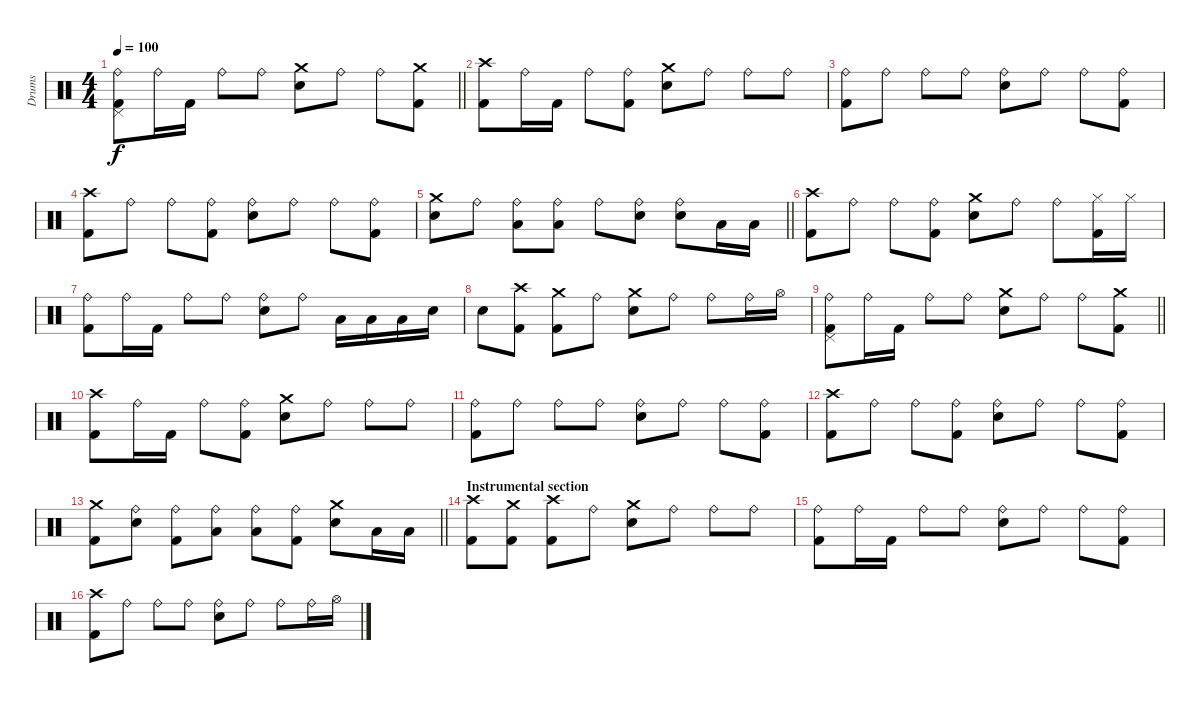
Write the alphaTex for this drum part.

\track ("Drums" "Drums") {instrument percussion}
\staff {score}
\articulation defaults
\ts (4 4)
\tempo 100
\clef neutral
\barLineRight lightlight
\ks c
("Ride (bell)" "Pedal Hi-Hat (hit)" "Kick (hit) 2").8{dy f} "Ride (bell)".16 "Kick (hit) 2".16 "Ride (bell)".8 "Ride (bell)".8 ("Crash medium (hit)" "Snare (hit) 2").8 "Ride (bell)".8 "Ride (bell)".8 ("Crash medium (hit)" "Kick (hit) 2").8 |
("Crash high (hit)" "Kick (hit) 2").8 "Ride (bell)".16 "Kick (hit) 2".16 "Ride (bell)".8 ("Ride (bell)" "Kick (hit) 2").8 ("Crash medium (hit)" "Snare (hit) 2").8 "Ride (bell)".8 "Ride (bell)".8 "Ride (bell)".8 |
("Ride (bell)" "Kick (hit) 2").8 "Ride (bell)".8 "Ride (bell)".8 "Ride (bell)".8 ("Ride (bell)" "Snare (hit) 2").8 "Ride (bell)".8 "Ride (bell)".8 ("Ride (bell)" "Kick (hit) 2").8 |
("Crash high (hit)" "Kick (hit) 2").8 "Ride (bell)".8 "Ride (bell)".8 ("Ride (bell)" "Kick (hit) 2").8 ("Ride (bell)" "Snare (hit) 2").8 "Ride (bell)".8 "Ride (bell)".8 ("Ride (bell)" "Kick (hit) 2").8 |
\barLineRight lightlight
("Crash medium (hit)" "Snare (hit) 2").8 "Ride (bell)".8 ("Ride (bell)" "Low Tom (hit)").8 ("Ride (bell)" "Low Tom (hit)").8 "Ride (bell)".8 ("Ride (bell)" "Snare (hit) 2").8 ("Ride (bell)" "Snare (hit) 2").8 "Low Floor Tom (hit)".16 "Low Floor Tom (hit)".16 |
("Crash high (hit)" "Kick (hit) 2").8 "Ride (bell)".8 "Ride (bell)".8 ("Ride (bell)" "Kick (hit) 2").8 ("Crash medium (hit)" "Snare (hit) 2").8 "Ride (bell)".8 "Ride (bell)".8 ("Hi-Hat (closed)" "Kick (hit) 2").16 "Hi-Hat (closed)".16 |
("Ride (bell)" "Kick (hit) 2").8 "Ride (bell)".16 "Kick (hit) 2".16 "Ride (bell)".8 "Ride (bell)".8 ("Ride (bell)" "Snare (hit) 2").8 "Ride (bell)".8 "Low Tom (hit)".16 "Low Tom (hit)".16 "Low Tom (hit)".16 "Snare (hit) 2".16 |
"Snare (hit) 2".8 ("Crash high (hit)" "Kick (hit) 2").8 ("Crash medium (hit)" "Kick (hit) 2").8 "Ride (bell)".8 ("Crash medium (hit)" "Snare (hit) 2").8 "Ride (bell)".8 "Ride (bell)".8 "Ride (bell)".16 "Hi-Hat (open)".16 |
\barLineRight lightlight
("Ride (bell)" "Pedal Hi-Hat (hit)" "Kick (hit) 2").8 "Ride (bell)".16 "Kick (hit) 2".16 "Ride (bell)".8 "Ride (bell)".8 ("Crash medium (hit)" "Snare (hit) 2").8 "Ride (bell)".8 "Ride (bell)".8 ("Crash medium (hit)" "Kick (hit) 2").8 |
("Crash high (hit)" "Kick (hit) 2").8 "Ride (bell)".16 "Kick (hit) 2".16 "Ride (bell)".8 ("Ride (bell)" "Kick (hit) 2").8 ("Crash medium (hit)" "Snare (hit) 2").8 "Ride (bell)".8 "Ride (bell)".8 "Ride (bell)".8 |
("Ride (bell)" "Kick (hit) 2").8 "Ride (bell)".8 "Ride (bell)".8 "Ride (bell)".8 ("Ride (bell)" "Snare (hit) 2").8 "Ride (bell)".8 "Ride (bell)".8 ("Ride (bell)" "Kick (hit) 2").8 |
("Crash high (hit)" "Kick (hit) 2").8 "Ride (bell)".8 "Ride (bell)".8 ("Ride (bell)" "Kick (hit) 2").8 ("Ride (bell)" "Snare (hit) 2").8 "Ride (bell)".8 "Ride (bell)".8 ("Ride (bell)" "Kick (hit) 2").8 |
\barLineRight lightlight
("Crash medium (hit)" "Kick (hit) 2").8 ("Ride (bell)" "Snare (hit) 2").8 ("Ride (bell)" "Kick (hit) 2").8 ("Ride (bell)" "Low Tom (hit)").8 ("Ride (bell)" "Low Tom (hit)").8 ("Ride (bell)" "Kick (hit) 2").8 ("Crash medium (hit)" "Snare (hit) 2").8 "Low Floor Tom (hit)".16 "Low Floor Tom (hit)".16 |
\section ("" "Instrumental section")
("Crash high (hit)" "Kick (hit) 2").8 ("Crash medium (hit)" "Kick (hit) 2").8 ("Crash high (hit)" "Kick (hit) 2").8 "Ride (bell)".8 ("Crash medium (hit)" "Snare (hit) 2").8 "Ride (bell)".8 "Ride (bell)".8 "Ride (bell)".8 |
("Ride (bell)" "Kick (hit) 2").8 "Ride (bell)".16 "Kick (hit) 2".16 "Ride (bell)".8 "Ride (bell)".8 ("Ride (bell)" "Snare (hit) 2").8 "Ride (bell)".8 "Ride (bell)".8 ("Ride (bell)" "Kick (hit) 2").8 |
("Crash high (hit)" "Kick (hit) 2").8 "Ride (bell)".8 "Ride (bell)".8 "Ride (bell)".8 ("Ride (bell)" "Snare (hit) 2").8 "Ride (bell)".8 "Ride (bell)".8 "Ride (bell)".16 "Hi-Hat (open)".16
